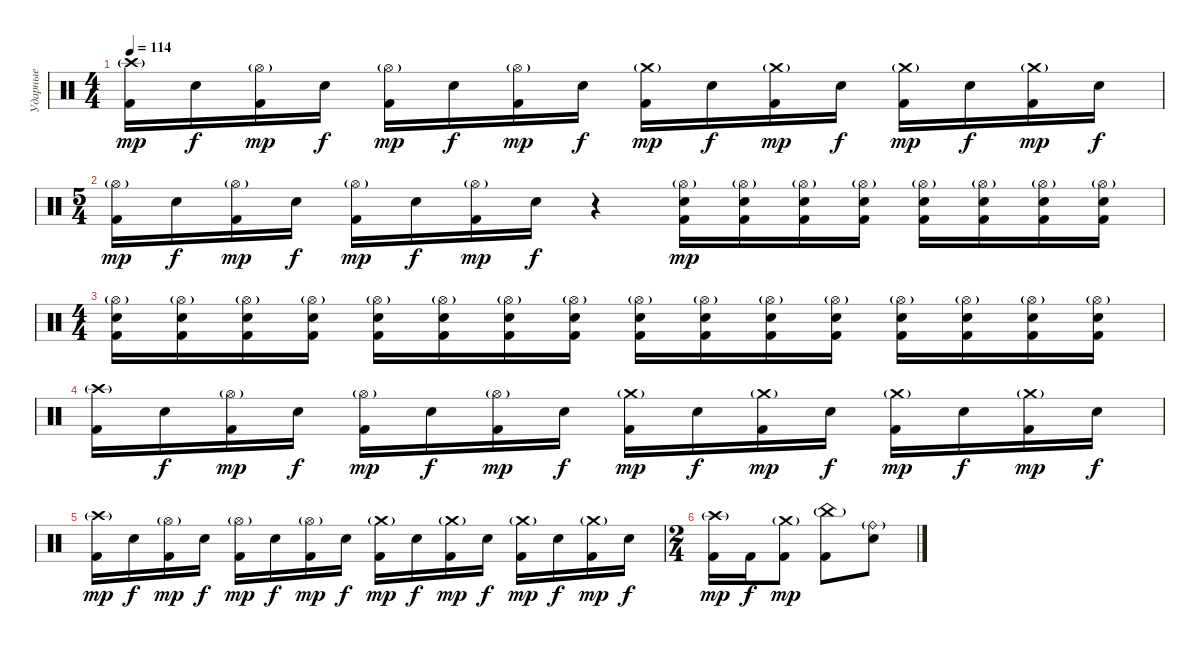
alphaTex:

\track ("Ударные" "Ударные") {instrument percussion}
\staff {score}
\articulation defaults
\ts (4 4)
\tempo 114
\clef neutral
\ks c
("Crash high (hit)"{g} "Kick (hit) 2").16{dy mp} "Electric Snare (hit)".16{dy f} ("Hi-Hat (open)"{g} "Kick (hit) 2").16{dy mp} "Electric Snare (hit)".16{dy f} ("Hi-Hat (open)"{g} "Kick (hit) 2").16{dy mp} "Electric Snare (hit)".16{dy f} ("Hi-Hat (open)"{g} "Kick (hit) 2").16{dy mp} "Electric Snare (hit)".16{dy f} ("Crash medium (hit)"{g} "Kick (hit) 2").16{dy mp} "Electric Snare (hit)".16{dy f} ("Crash medium (hit)"{g} "Kick (hit) 2").16{dy mp} "Electric Snare (hit)".16{dy f} ("Crash medium (hit)"{g} "Kick (hit) 2").16{dy mp} "Electric Snare (hit)".16{dy f} ("Crash medium (hit)"{g} "Kick (hit) 2").16{dy mp} "Electric Snare (hit)".16{dy f} |
\ts (5 4)
("Hi-Hat (open)"{g} "Kick (hit) 2").16{dy mp} "Electric Snare (hit)".16{dy f} ("Hi-Hat (open)"{g} "Kick (hit) 2").16{dy mp} "Electric Snare (hit)".16{dy f} ("Hi-Hat (open)"{g} "Kick (hit) 2").16{dy mp} "Electric Snare (hit)".16{dy f} ("Hi-Hat (open)"{g} "Kick (hit) 2").16{dy mp} "Electric Snare (hit)".16{dy f} r.4 ("Hi-Hat (open)"{g} "Electric Snare (hit)" "Kick (hit) 2").16{dy mp} ("Hi-Hat (open)"{g} "Electric Snare (hit)" "Kick (hit) 2").16 ("Hi-Hat (open)"{g} "Electric Snare (hit)" "Kick (hit) 2").16 ("Hi-Hat (open)"{g} "Electric Snare (hit)" "Kick (hit) 2").16 ("Hi-Hat (open)"{g} "Electric Snare (hit)" "Kick (hit) 2").16 ("Hi-Hat (open)"{g} "Electric Snare (hit)" "Kick (hit) 2").16 ("Hi-Hat (open)"{g} "Electric Snare (hit)" "Kick (hit) 2").16 ("Hi-Hat (open)"{g} "Electric Snare (hit)" "Kick (hit) 2").16 |
\ts (4 4)
("Hi-Hat (open)"{g} "Electric Snare (hit)" "Kick (hit) 2").16 ("Hi-Hat (open)"{g} "Electric Snare (hit)" "Kick (hit) 2").16 ("Hi-Hat (open)"{g} "Electric Snare (hit)" "Kick (hit) 2").16 ("Hi-Hat (open)"{g} "Electric Snare (hit)" "Kick (hit) 2").16 ("Hi-Hat (open)"{g} "Electric Snare (hit)" "Kick (hit) 2").16 ("Hi-Hat (open)"{g} "Electric Snare (hit)" "Kick (hit) 2").16 ("Hi-Hat (open)"{g} "Electric Snare (hit)" "Kick (hit) 2").16 ("Hi-Hat (open)"{g} "Electric Snare (hit)" "Kick (hit) 2").16 ("Hi-Hat (open)"{g} "Electric Snare (hit)" "Kick (hit) 2").16 ("Hi-Hat (open)"{g} "Electric Snare (hit)" "Kick (hit) 2").16 ("Hi-Hat (open)"{g} "Electric Snare (hit)" "Kick (hit) 2").16 ("Hi-Hat (open)"{g} "Electric Snare (hit)" "Kick (hit) 2").16 ("Hi-Hat (open)"{g} "Electric Snare (hit)" "Kick (hit) 2").16 ("Hi-Hat (open)"{g} "Electric Snare (hit)" "Kick (hit) 2").16 ("Hi-Hat (open)"{g} "Electric Snare (hit)" "Kick (hit) 2").16 ("Hi-Hat (open)"{g} "Electric Snare (hit)" "Kick (hit) 2").16 |
("Crash high (hit)"{g} "Kick (hit) 2").16 "Electric Snare (hit)".16{dy f} ("Hi-Hat (open)"{g} "Kick (hit) 2").16{dy mp} "Electric Snare (hit)".16{dy f} ("Hi-Hat (open)"{g} "Kick (hit) 2").16{dy mp} "Electric Snare (hit)".16{dy f} ("Hi-Hat (open)"{g} "Kick (hit) 2").16{dy mp} "Electric Snare (hit)".16{dy f} ("Crash medium (hit)"{g} "Kick (hit) 2").16{dy mp} "Electric Snare (hit)".16{dy f} ("Crash medium (hit)"{g} "Kick (hit) 2").16{dy mp} "Electric Snare (hit)".16{dy f} ("Crash medium (hit)"{g} "Kick (hit) 2").16{dy mp} "Electric Snare (hit)".16{dy f} ("Crash medium (hit)"{g} "Kick (hit) 2").16{dy mp} "Electric Snare (hit)".16{dy f} |
("Crash high (hit)"{g} "Kick (hit) 2").16{dy mp} "Electric Snare (hit)".16{dy f} ("Hi-Hat (open)"{g} "Kick (hit) 2").16{dy mp} "Electric Snare (hit)".16{dy f} ("Hi-Hat (open)"{g} "Kick (hit) 2").16{dy mp} "Electric Snare (hit)".16{dy f} ("Hi-Hat (open)"{g} "Kick (hit) 2").16{dy mp} "Electric Snare (hit)".16{dy f} ("Crash medium (hit)"{g} "Kick (hit) 2").16{dy mp} "Electric Snare (hit)".16{dy f} ("Crash medium (hit)"{g} "Kick (hit) 2").16{dy mp} "Electric Snare (hit)".16{dy f} ("Crash medium (hit)"{g} "Kick (hit) 2").16{dy mp} "Electric Snare (hit)".16{dy f} ("Crash medium (hit)"{g} "Kick (hit) 2").16{dy mp} "Electric Snare (hit)".16{dy f} |
\ts (2 4)
("Crash high (hit)"{g} "Kick (hit) 2").16{dy mp} "Kick (hit) 2".16{dy f} ("Crash medium (hit)"{g} "Kick (hit) 2").8{dy mp} ("China (hit)"{g} "Kick (hit) 2").8 ("Ride (bell)"{g} "Electric Snare (hit)").8
